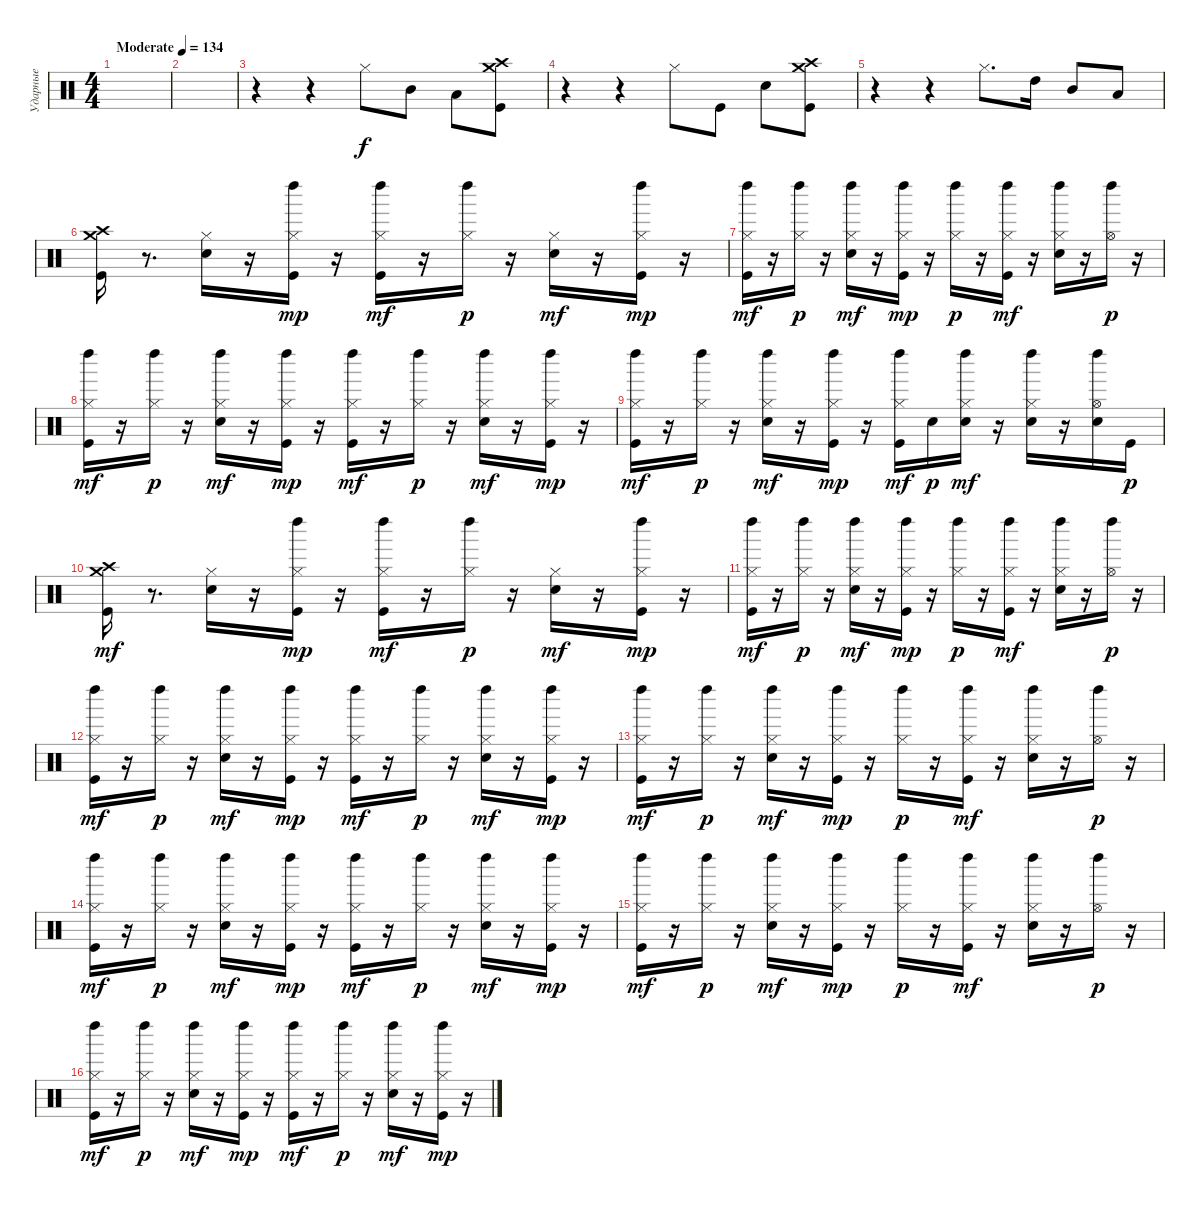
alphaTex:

\track ("Ударные" "Ударные") {instrument percussion}
\staff {score}
\articulation defaults
\ts (4 4)
\tempo (134 "Moderate")
\clef neutral
\ks c
|
|
r.4 r.4 "Hi-Hat (closed)".8 "Mid Tom (hit)".8 "Low Tom (hit)".8 ("Crash medium (hit)" "Crash high (hit)" "Kick (hit)").8 |
r.4 r.4 "Hi-Hat (closed)".8 "Kick (hit)".8 "Snare (hit) 2".8 ("Crash medium (hit)" "Crash high (hit)" "Kick (hit)").8 |
r.4 r.4 "Hi-Hat (closed)".8{d} "High Tom (hit)".16 "Mid Tom (hit)".8 "Low Tom (hit)".8 |
("Crash medium (hit)" "Crash high (hit)" "Kick (hit)").16 r.8{d} ("Hi-Hat (closed)" "Snare (hit) 2").16 r.16 ("Hi-Hat (closed)" "Left Maraca (hit)" "Kick (hit)").16{dy mp} r.16 ("Hi-Hat (closed)" "Left Maraca (hit)" "Kick (hit)").16{dy mf} r.16 ("Hi-Hat (closed)" "Left Maraca (hit)").16{dy p} r.16 ("Hi-Hat (closed)" "Snare (hit) 2").16{dy mf} r.16 ("Hi-Hat (closed)" "Left Maraca (hit)" "Kick (hit)").16{dy mp} r.16 |
("Hi-Hat (closed)" "Left Maraca (hit)" "Kick (hit)").16{dy mf} r.16 ("Hi-Hat (closed)" "Left Maraca (hit)").16{dy p} r.16 ("Hi-Hat (closed)" "Left Maraca (hit)" "Snare (hit) 2").16{dy mf} r.16 ("Hi-Hat (closed)" "Left Maraca (hit)" "Kick (hit)").16{dy mp} r.16 ("Hi-Hat (closed)" "Left Maraca (hit)").16{dy p} r.16 ("Hi-Hat (closed)" "Left Maraca (hit)" "Kick (hit)").16{dy mf} r.16 ("Hi-Hat (closed)" "Left Maraca (hit)" "Snare (hit) 2").16 r.16 ("Hi-Hat (open)" "Left Maraca (hit)").16{dy p} r.16 |
("Hi-Hat (closed)" "Left Maraca (hit)" "Kick (hit)").16{dy mf} r.16 ("Hi-Hat (closed)" "Left Maraca (hit)").16{dy p} r.16 ("Hi-Hat (closed)" "Left Maraca (hit)" "Snare (hit) 2").16{dy mf} r.16 ("Hi-Hat (closed)" "Left Maraca (hit)" "Kick (hit)").16{dy mp} r.16 ("Hi-Hat (closed)" "Left Maraca (hit)" "Kick (hit)").16{dy mf} r.16 ("Hi-Hat (closed)" "Left Maraca (hit)").16{dy p} r.16 ("Hi-Hat (closed)" "Left Maraca (hit)" "Snare (hit) 2").16{dy mf} r.16 ("Hi-Hat (closed)" "Left Maraca (hit)" "Kick (hit)").16{dy mp} r.16 |
("Hi-Hat (closed)" "Left Maraca (hit)" "Kick (hit)").16{dy mf} r.16 ("Hi-Hat (closed)" "Left Maraca (hit)").16{dy p} r.16 ("Hi-Hat (closed)" "Left Maraca (hit)" "Snare (hit) 2").16{dy mf} r.16 ("Hi-Hat (closed)" "Left Maraca (hit)" "Kick (hit)").16{dy mp} r.16 ("Hi-Hat (closed)" "Left Maraca (hit)" "Kick (hit)").16{dy mf} "Snare (hit) 2".16{dy p} ("Hi-Hat (closed)" "Left Maraca (hit)" "Snare (hit) 2").16{dy mf} r.16 ("Hi-Hat (closed)" "Left Maraca (hit)" "Snare (hit) 2").16 r.16 ("Hi-Hat (open)" "Left Maraca (hit)" "Snare (hit) 2").16 "Kick (hit)".16{dy p} |
("Crash medium (hit)" "Crash high (hit)" "Kick (hit)").16{dy mf} r.8{d} ("Hi-Hat (closed)" "Snare (hit) 2").16 r.16 ("Hi-Hat (closed)" "Left Maraca (hit)" "Kick (hit)").16{dy mp} r.16 ("Hi-Hat (closed)" "Left Maraca (hit)" "Kick (hit)").16{dy mf} r.16 ("Hi-Hat (closed)" "Left Maraca (hit)").16{dy p} r.16 ("Hi-Hat (closed)" "Snare (hit) 2").16{dy mf} r.16 ("Hi-Hat (closed)" "Left Maraca (hit)" "Kick (hit)").16{dy mp} r.16 |
("Hi-Hat (closed)" "Left Maraca (hit)" "Kick (hit)").16{dy mf} r.16 ("Hi-Hat (closed)" "Left Maraca (hit)").16{dy p} r.16 ("Hi-Hat (closed)" "Left Maraca (hit)" "Snare (hit) 2").16{dy mf} r.16 ("Hi-Hat (closed)" "Left Maraca (hit)" "Kick (hit)").16{dy mp} r.16 ("Hi-Hat (closed)" "Left Maraca (hit)").16{dy p} r.16 ("Hi-Hat (closed)" "Left Maraca (hit)" "Kick (hit)").16{dy mf} r.16 ("Hi-Hat (closed)" "Left Maraca (hit)" "Snare (hit) 2").16 r.16 ("Hi-Hat (open)" "Left Maraca (hit)").16{dy p} r.16 |
("Hi-Hat (closed)" "Left Maraca (hit)" "Kick (hit)").16{dy mf} r.16 ("Hi-Hat (closed)" "Left Maraca (hit)").16{dy p} r.16 ("Hi-Hat (closed)" "Left Maraca (hit)" "Snare (hit) 2").16{dy mf} r.16 ("Hi-Hat (closed)" "Left Maraca (hit)" "Kick (hit)").16{dy mp} r.16 ("Hi-Hat (closed)" "Left Maraca (hit)" "Kick (hit)").16{dy mf} r.16 ("Hi-Hat (closed)" "Left Maraca (hit)").16{dy p} r.16 ("Hi-Hat (closed)" "Left Maraca (hit)" "Snare (hit) 2").16{dy mf} r.16 ("Hi-Hat (closed)" "Left Maraca (hit)" "Kick (hit)").16{dy mp} r.16 |
("Hi-Hat (closed)" "Left Maraca (hit)" "Kick (hit)").16{dy mf} r.16 ("Hi-Hat (closed)" "Left Maraca (hit)").16{dy p} r.16 ("Hi-Hat (closed)" "Left Maraca (hit)" "Snare (hit) 2").16{dy mf} r.16 ("Hi-Hat (closed)" "Left Maraca (hit)" "Kick (hit)").16{dy mp} r.16 ("Hi-Hat (closed)" "Left Maraca (hit)").16{dy p} r.16 ("Hi-Hat (closed)" "Left Maraca (hit)" "Kick (hit)").16{dy mf} r.16 ("Hi-Hat (closed)" "Left Maraca (hit)" "Snare (hit) 2").16 r.16 ("Hi-Hat (open)" "Left Maraca (hit)").16{dy p} r.16 |
("Hi-Hat (closed)" "Left Maraca (hit)" "Kick (hit)").16{dy mf} r.16 ("Hi-Hat (closed)" "Left Maraca (hit)").16{dy p} r.16 ("Hi-Hat (closed)" "Left Maraca (hit)" "Snare (hit) 2").16{dy mf} r.16 ("Hi-Hat (closed)" "Left Maraca (hit)" "Kick (hit)").16{dy mp} r.16 ("Hi-Hat (closed)" "Left Maraca (hit)" "Kick (hit)").16{dy mf} r.16 ("Hi-Hat (closed)" "Left Maraca (hit)").16{dy p} r.16 ("Hi-Hat (closed)" "Left Maraca (hit)" "Snare (hit) 2").16{dy mf} r.16 ("Hi-Hat (closed)" "Left Maraca (hit)" "Kick (hit)").16{dy mp} r.16 |
("Hi-Hat (closed)" "Left Maraca (hit)" "Kick (hit)").16{dy mf} r.16 ("Hi-Hat (closed)" "Left Maraca (hit)").16{dy p} r.16 ("Hi-Hat (closed)" "Left Maraca (hit)" "Snare (hit) 2").16{dy mf} r.16 ("Hi-Hat (closed)" "Left Maraca (hit)" "Kick (hit)").16{dy mp} r.16 ("Hi-Hat (closed)" "Left Maraca (hit)").16{dy p} r.16 ("Hi-Hat (closed)" "Left Maraca (hit)" "Kick (hit)").16{dy mf} r.16 ("Hi-Hat (closed)" "Left Maraca (hit)" "Snare (hit) 2").16 r.16 ("Hi-Hat (open)" "Left Maraca (hit)").16{dy p} r.16 |
("Hi-Hat (closed)" "Left Maraca (hit)" "Kick (hit)").16{dy mf} r.16 ("Hi-Hat (closed)" "Left Maraca (hit)").16{dy p} r.16 ("Hi-Hat (closed)" "Left Maraca (hit)" "Snare (hit) 2").16{dy mf} r.16 ("Hi-Hat (closed)" "Left Maraca (hit)" "Kick (hit)").16{dy mp} r.16 ("Hi-Hat (closed)" "Left Maraca (hit)" "Kick (hit)").16{dy mf} r.16 ("Hi-Hat (closed)" "Left Maraca (hit)").16{dy p} r.16 ("Hi-Hat (closed)" "Left Maraca (hit)" "Snare (hit) 2").16{dy mf} r.16 ("Hi-Hat (closed)" "Left Maraca (hit)" "Kick (hit)").16{dy mp} r.16
